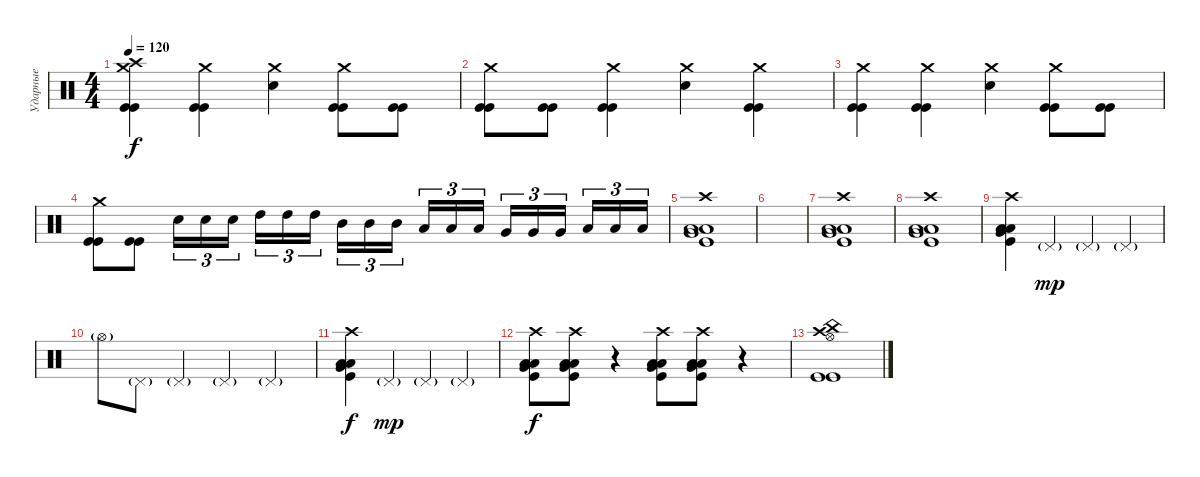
\track ("Ударные" "Ударные") {instrument percussion}
\staff {score}
\articulation defaults
\ts (4 4)
\tempo 120
\clef neutral
\ks c
("Crash high (hit)" "Crash medium (hit)" "Kick (hit)" "Kick (hit)").4{dy f} ("Crash medium (hit)" "Kick (hit)" "Kick (hit)").4 ("Snare (hit) 2" "Crash medium (hit)").4 ("Crash medium (hit)" "Kick (hit)" "Kick (hit)").8 ("Kick (hit)" "Kick (hit)").8 |
("Crash medium (hit)" "Kick (hit)" "Kick (hit)").8 ("Kick (hit)" "Kick (hit)").8 ("Crash medium (hit)" "Kick (hit)" "Kick (hit)").4 ("Snare (hit) 2" "Crash medium (hit)").4 ("Crash medium (hit)" "Kick (hit)" "Kick (hit)").4 |
("Crash medium (hit)" "Kick (hit)" "Kick (hit)").4 ("Crash medium (hit)" "Kick (hit)" "Kick (hit)").4 ("Snare (hit) 2" "Crash medium (hit)").4 ("Crash medium (hit)" "Kick (hit)" "Kick (hit)").8 ("Kick (hit)" "Kick (hit)").8 |
("Crash medium (hit)" "Kick (hit)" "Kick (hit)").8 ("Kick (hit)" "Kick (hit)").8 "Snare (hit) 2".16{tu (3 2)} "Snare (hit) 2".16{tu (3 2)} "Snare (hit) 2".16{tu (3 2) beam splitsecondary} "High Tom (hit)".16{tu (3 2)} "High Tom (hit)".16{tu (3 2)} "High Tom (hit)".16{tu (3 2)} "Mid Tom (hit)".16{tu (3 2)} "Mid Tom (hit)".16{tu (3 2)} "Mid Tom (hit)".16{tu (3 2) beam splitsecondary} "Low Tom (hit)".16{tu (3 2)} "Low Tom (hit)".16{tu (3 2)} "Low Tom (hit)".16{tu (3 2)} "Very Low Tom (hit)".16{tu (3 2)} "Very Low Tom (hit)".16{tu (3 2)} "Very Low Tom (hit)".16{tu (3 2) beam splitsecondary} "Low Floor Tom (hit)".16{tu (3 2)} "Low Floor Tom (hit)".16{tu (3 2)} "Low Floor Tom (hit)".16{tu (3 2)} |
("Crash high (hit)" "Low Tom (hit)" "Low Floor Tom (hit)" "Very Low Tom (hit)" "Kick (hit)").1 |
|
("Crash high (hit)" "Low Tom (hit)" "Low Floor Tom (hit)" "Very Low Tom (hit)" "Kick (hit)").1 |
("Crash high (hit)" "Low Tom (hit)" "Low Floor Tom (hit)" "Very Low Tom (hit)" "Kick (hit)").1 |
("Crash high (hit)" "Low Tom (hit)" "Low Floor Tom (hit)" "Very Low Tom (hit)" "Kick (hit)").4 "Pedal Hi-Hat (hit)"{g}.4{dy mp} "Pedal Hi-Hat (hit)"{g}.4 "Pedal Hi-Hat (hit)"{g}.4 |
"Hi-Hat (open)"{g}.8 "Pedal Hi-Hat (hit)"{g}.8 "Pedal Hi-Hat (hit)"{g}.4 "Pedal Hi-Hat (hit)"{g}.4 "Pedal Hi-Hat (hit)"{g}.4 |
("Crash high (hit)" "Low Tom (hit)" "Low Floor Tom (hit)" "Very Low Tom (hit)" "Kick (hit)").4{dy f} "Pedal Hi-Hat (hit)"{g}.4{dy mp} "Pedal Hi-Hat (hit)"{g}.4 "Pedal Hi-Hat (hit)"{g}.4 |
("Crash high (hit)" "Low Tom (hit)" "Low Floor Tom (hit)" "Very Low Tom (hit)" "Kick (hit)").8{dy f} ("Crash high (hit)" "Low Tom (hit)" "Low Floor Tom (hit)" "Very Low Tom (hit)" "Kick (hit)").8 r.4 ("Crash high (hit)" "Low Tom (hit)" "Low Floor Tom (hit)" "Very Low Tom (hit)" "Kick (hit)").8 ("Crash high (hit)" "Low Tom (hit)" "Low Floor Tom (hit)" "Very Low Tom (hit)" "Kick (hit)").8 r.4 |
("China (hit)" "Crash high (hit)" "Hi-Hat (open)" "Kick (hit)" "Kick (hit)").1
